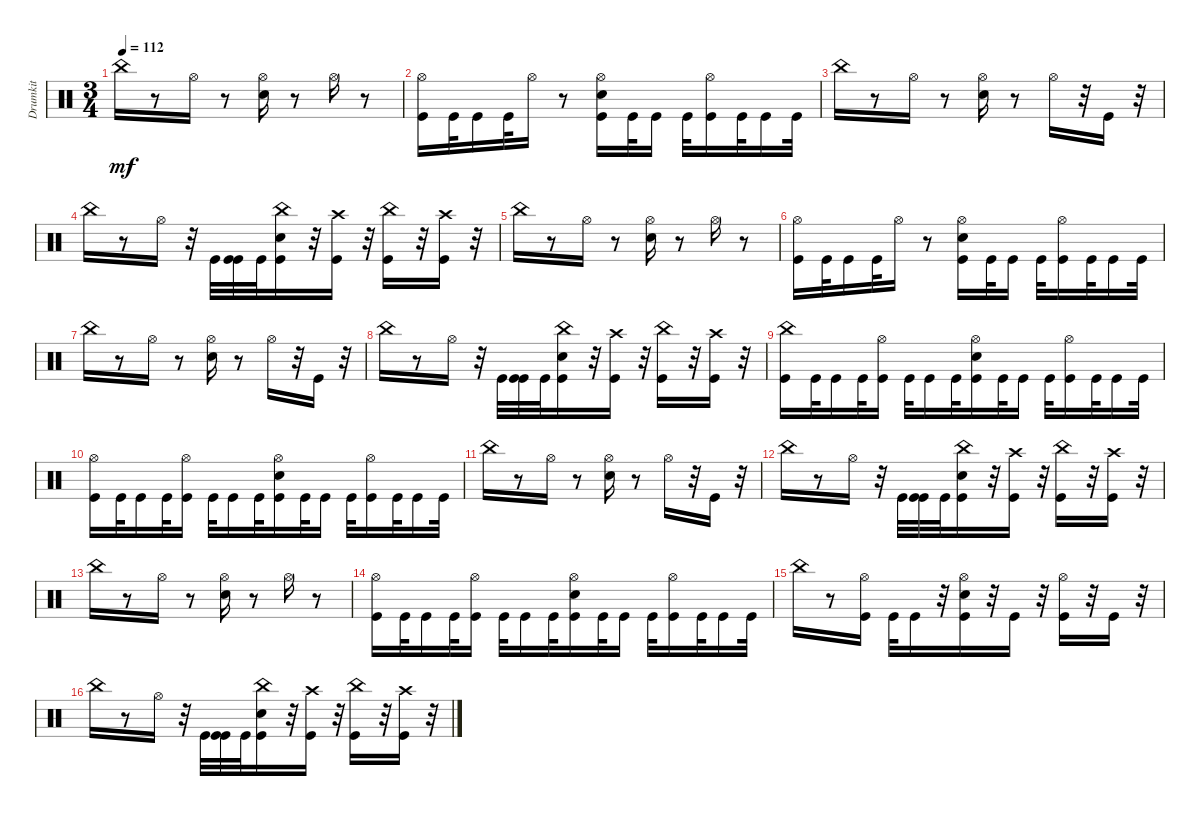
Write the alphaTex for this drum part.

\track ("Drumkit" "Drumkit") {instrument percussion}
\staff {score}
\articulation defaults
\ts (3 4)
\tempo 112
\clef neutral
\ks c "China (hit)".16{dy mf}
r.8 "Hi-Hat (open)".16 r.8 ("Snare (hit) 2" "Hi-Hat (open)").16 r.8 "Hi-Hat (open)".16 r.8 |
("Kick (hit)" "Hi-Hat (open)").16 "Kick (hit)".32 "Kick (hit)".16 "Kick (hit)".32 "Hi-Hat (open)".16 r.8 ("Snare (hit) 2" "Hi-Hat (open)" "Kick (hit)").16 "Kick (hit)".32 "Kick (hit)".16 "Kick (hit)".32 ("Hi-Hat (open)" "Kick (hit)").16 "Kick (hit)".32 "Kick (hit)".16 "Kick (hit)".32 |
"China (hit)".16 r.8 "Hi-Hat (open)".16 r.8 ("Snare (hit) 2" "Hi-Hat (open)").16 r.8 "Hi-Hat (open)".16 r.32 "Kick (hit)".16 r.32 |
"China (hit)".16 r.8 "Hi-Hat (open)".16 r.32 "Kick (hit)".32 ("Kick (hit)" "Kick (hit)").32 "Kick (hit)".32 ("China (hit)" "Kick (hit)" "Snare (hit) 2").16 r.32 ("Kick (hit)" "Crash high (hit)").16 r.32 ("China (hit)" "Kick (hit)").16 r.32 ("Kick (hit)" "Crash high (hit)").16 r.32 |
"China (hit)".16 r.8 "Hi-Hat (open)".16 r.8 ("Snare (hit) 2" "Hi-Hat (open)").16 r.8 "Hi-Hat (open)".16 r.8 |
("Kick (hit)" "Hi-Hat (open)").16 "Kick (hit)".32 "Kick (hit)".16 "Kick (hit)".32 "Hi-Hat (open)".16 r.8 ("Snare (hit) 2" "Hi-Hat (open)" "Kick (hit)").16 "Kick (hit)".32 "Kick (hit)".16 "Kick (hit)".32 ("Hi-Hat (open)" "Kick (hit)").16 "Kick (hit)".32 "Kick (hit)".16 "Kick (hit)".32 |
"China (hit)".16 r.8 "Hi-Hat (open)".16 r.8 ("Snare (hit) 2" "Hi-Hat (open)").16 r.8 "Hi-Hat (open)".16 r.32 "Kick (hit)".16 r.32 |
"China (hit)".16 r.8 "Hi-Hat (open)".16 r.32 "Kick (hit)".32 ("Kick (hit)" "Kick (hit)").32 "Kick (hit)".32 ("China (hit)" "Kick (hit)" "Snare (hit) 2").16 r.32 ("Kick (hit)" "Crash high (hit)").16 r.32 ("China (hit)" "Kick (hit)").16 r.32 ("Kick (hit)" "Crash high (hit)").16 r.32 |
("Kick (hit)" "China (hit)").16 "Kick (hit)".32 "Kick (hit)".16 "Kick (hit)".32 ("Kick (hit)" "Hi-Hat (open)").16 "Kick (hit)".32 "Kick (hit)".16 "Kick (hit)".32 ("Kick (hit)" "Snare (hit) 2" "Hi-Hat (open)").16 "Kick (hit)".32 "Kick (hit)".16 "Kick (hit)".32 ("Kick (hit)" "Hi-Hat (open)").16 "Kick (hit)".32 "Kick (hit)".16 "Kick (hit)".32 |
("Kick (hit)" "Hi-Hat (open)").16 "Kick (hit)".32 "Kick (hit)".16 "Kick (hit)".32 ("Kick (hit)" "Hi-Hat (open)").16 "Kick (hit)".32 "Kick (hit)".16 "Kick (hit)".32 ("Kick (hit)" "Snare (hit) 2" "Hi-Hat (open)").16 "Kick (hit)".32 "Kick (hit)".16 "Kick (hit)".32 ("Kick (hit)" "Hi-Hat (open)").16 "Kick (hit)".32 "Kick (hit)".16 "Kick (hit)".32 |
"China (hit)".16 r.8 "Hi-Hat (open)".16 r.8 ("Snare (hit) 2" "Hi-Hat (open)").16 r.8 "Hi-Hat (open)".16 r.32 "Kick (hit)".16 r.32 |
"China (hit)".16 r.8 "Hi-Hat (open)".16 r.32 "Kick (hit)".32 ("Kick (hit)" "Kick (hit)").32 "Kick (hit)".32 ("China (hit)" "Kick (hit)" "Snare (hit) 2").16 r.32 ("Kick (hit)" "Crash high (hit)").16 r.32 ("China (hit)" "Kick (hit)").16 r.32 ("Kick (hit)" "Crash high (hit)").16 r.32 |
"China (hit)".16 r.8 "Hi-Hat (open)".16 r.8 ("Snare (hit) 2" "Hi-Hat (open)").16 r.8 "Hi-Hat (open)".16 r.8 |
("Kick (hit)" "Hi-Hat (open)").16 "Kick (hit)".32 "Kick (hit)".16 "Kick (hit)".32 ("Kick (hit)" "Hi-Hat (open)").16 "Kick (hit)".32 "Kick (hit)".16 "Kick (hit)".32 ("Kick (hit)" "Snare (hit) 2" "Hi-Hat (open)").16 "Kick (hit)".32 "Kick (hit)".16 "Kick (hit)".32 ("Kick (hit)" "Hi-Hat (open)").16 "Kick (hit)".32 "Kick (hit)".16 "Kick (hit)".32 |
"China (hit)".16 r.8 ("Hi-Hat (open)" "Kick (hit)").16 "Kick (hit)".32 "Kick (hit)".16 r.32 ("Snare (hit) 2" "Hi-Hat (open)" "Kick (hit)").16 r.32 "Kick (hit)".16 r.32 ("Hi-Hat (open)" "Kick (hit)").16 r.32 "Kick (hit)".16 r.32 |
"China (hit)".16 r.8 "Hi-Hat (open)".16 r.32 "Kick (hit)".32 ("Kick (hit)" "Kick (hit)").32 "Kick (hit)".32 ("China (hit)" "Kick (hit)" "Snare (hit) 2").16 r.32 ("Kick (hit)" "Crash high (hit)").16 r.32 ("China (hit)" "Kick (hit)").16 r.32 ("Kick (hit)" "Crash high (hit)").16 r.32
